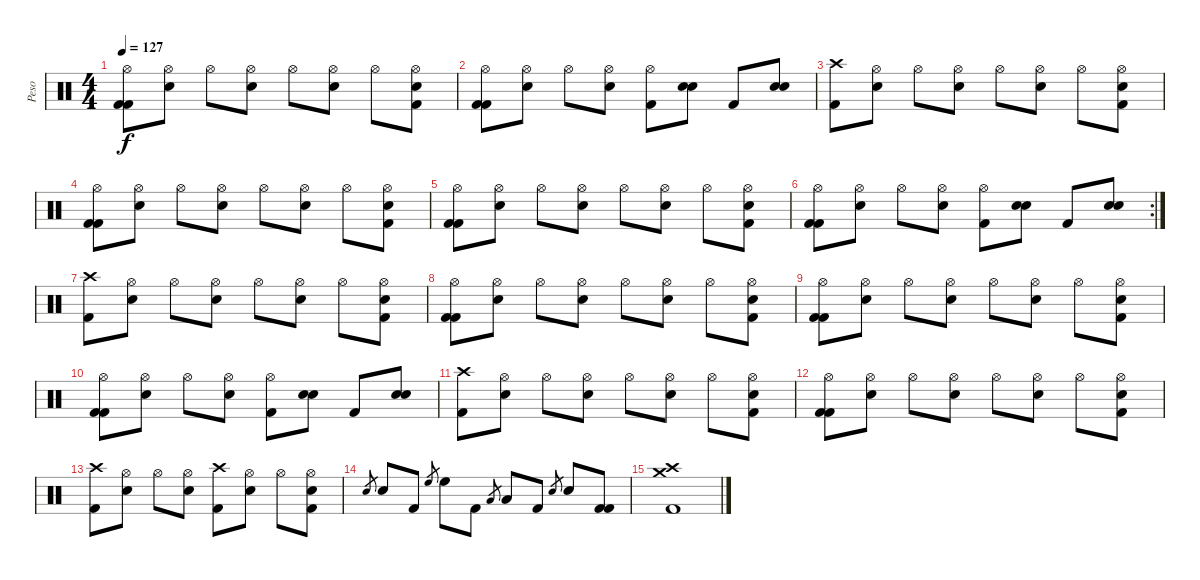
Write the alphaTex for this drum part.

\track ("Peso" "Peso") {instrument percussion}
\staff {score}
\articulation defaults
\ts (4 4)
\tempo 127
\clef neutral
\ks c
("Hi-Hat (open)" "Kick (hit) 2" "Kick (hit) 2").8{dy f} ("Hi-Hat (open)" "Snare (hit) 2").8 "Hi-Hat (open)".8 ("Hi-Hat (open)" "Snare (hit) 2").8 "Hi-Hat (open)".8 ("Hi-Hat (open)" "Snare (hit) 2").8 "Hi-Hat (open)".8 ("Hi-Hat (open)" "Snare (hit) 2" "Kick (hit) 2").8 |
("Hi-Hat (open)" "Kick (hit) 2" "Kick (hit) 2").8 ("Hi-Hat (open)" "Snare (hit) 2").8 "Hi-Hat (open)".8 ("Hi-Hat (open)" "Snare (hit) 2").8 ("Hi-Hat (open)" "Kick (hit) 2").8 ("Snare (hit) 2" "Snare (hit) 2").8 "Kick (hit) 2".8 ("Snare (hit) 2" "Snare (hit) 2").8 |
("Crash high (hit)" "Kick (hit) 2").8 ("Hi-Hat (open)" "Snare (hit) 2").8 "Hi-Hat (open)".8 ("Hi-Hat (open)" "Snare (hit) 2").8 "Hi-Hat (open)".8 ("Hi-Hat (open)" "Snare (hit) 2").8 "Hi-Hat (open)".8 ("Hi-Hat (open)" "Snare (hit) 2" "Kick (hit) 2").8 |
("Hi-Hat (open)" "Kick (hit) 2" "Kick (hit) 2").8 ("Hi-Hat (open)" "Snare (hit) 2").8 "Hi-Hat (open)".8 ("Hi-Hat (open)" "Snare (hit) 2").8 "Hi-Hat (open)".8 ("Hi-Hat (open)" "Snare (hit) 2").8 "Hi-Hat (open)".8 ("Hi-Hat (open)" "Snare (hit) 2" "Kick (hit) 2").8 |
("Hi-Hat (open)" "Kick (hit) 2" "Kick (hit) 2").8 ("Hi-Hat (open)" "Snare (hit) 2").8 "Hi-Hat (open)".8 ("Hi-Hat (open)" "Snare (hit) 2").8 "Hi-Hat (open)".8 ("Hi-Hat (open)" "Snare (hit) 2").8 "Hi-Hat (open)".8 ("Hi-Hat (open)" "Snare (hit) 2" "Kick (hit) 2").8 |
\rc 2
("Hi-Hat (open)" "Kick (hit) 2" "Kick (hit) 2").8 ("Hi-Hat (open)" "Snare (hit) 2").8 "Hi-Hat (open)".8 ("Hi-Hat (open)" "Snare (hit) 2").8 ("Hi-Hat (open)" "Kick (hit) 2").8 ("Snare (hit) 2" "Snare (hit) 2").8 "Kick (hit) 2".8 ("Snare (hit) 2" "Snare (hit) 2").8 |
("Crash high (hit)" "Kick (hit) 2").8 ("Hi-Hat (open)" "Snare (hit) 2").8 "Hi-Hat (open)".8 ("Hi-Hat (open)" "Snare (hit) 2").8 "Hi-Hat (open)".8 ("Hi-Hat (open)" "Snare (hit) 2").8 "Hi-Hat (open)".8 ("Hi-Hat (open)" "Snare (hit) 2" "Kick (hit) 2").8 |
("Hi-Hat (open)" "Kick (hit) 2" "Kick (hit) 2").8 ("Hi-Hat (open)" "Snare (hit) 2").8 "Hi-Hat (open)".8 ("Hi-Hat (open)" "Snare (hit) 2").8 "Hi-Hat (open)".8 ("Hi-Hat (open)" "Snare (hit) 2").8 "Hi-Hat (open)".8 ("Hi-Hat (open)" "Snare (hit) 2" "Kick (hit) 2").8 |
("Hi-Hat (open)" "Kick (hit) 2" "Kick (hit) 2").8 ("Hi-Hat (open)" "Snare (hit) 2").8 "Hi-Hat (open)".8 ("Hi-Hat (open)" "Snare (hit) 2").8 "Hi-Hat (open)".8 ("Hi-Hat (open)" "Snare (hit) 2").8 "Hi-Hat (open)".8 ("Hi-Hat (open)" "Snare (hit) 2" "Kick (hit) 2").8 |
("Hi-Hat (open)" "Kick (hit) 2" "Kick (hit) 2").8 ("Hi-Hat (open)" "Snare (hit) 2").8 "Hi-Hat (open)".8 ("Hi-Hat (open)" "Snare (hit) 2").8 ("Hi-Hat (open)" "Kick (hit) 2").8 ("Snare (hit) 2" "Snare (hit) 2").8 "Kick (hit) 2".8 ("Snare (hit) 2" "Snare (hit) 2").8 |
("Crash high (hit)" "Kick (hit) 2").8 ("Hi-Hat (open)" "Snare (hit) 2").8 "Hi-Hat (open)".8 ("Hi-Hat (open)" "Snare (hit) 2").8 "Hi-Hat (open)".8 ("Hi-Hat (open)" "Snare (hit) 2").8 "Hi-Hat (open)".8 ("Hi-Hat (open)" "Snare (hit) 2" "Kick (hit) 2").8 |
("Hi-Hat (open)" "Kick (hit) 2" "Kick (hit) 2").8 ("Hi-Hat (open)" "Snare (hit) 2").8 "Hi-Hat (open)".8 ("Hi-Hat (open)" "Snare (hit) 2").8 "Hi-Hat (open)".8 ("Hi-Hat (open)" "Snare (hit) 2").8 "Hi-Hat (open)".8 ("Hi-Hat (open)" "Snare (hit) 2" "Kick (hit) 2").8 |
("Crash high (hit)" "Kick (hit) 2").8 ("Hi-Hat (open)" "Snare (hit) 2").8 "Hi-Hat (open)".8 ("Hi-Hat (open)" "Snare (hit) 2").8 ("Crash high (hit)" "Kick (hit) 2").8 ("Hi-Hat (open)" "Snare (hit) 2").8 "Hi-Hat (open)".8 ("Hi-Hat (open)" "Snare (hit) 2" "Kick (hit) 2").8 |
"Snare (hit) 2".8{gr} "Snare (hit) 2".8 "Kick (hit) 2".8 "High Floor Tom (hit)".8{gr} "High Floor Tom (hit)".8 "Kick (hit) 2".8 "Low Floor Tom (hit)".8{gr} "Low Floor Tom (hit)".8{volume 16} "Kick (hit) 2".8 "Snare (hit) 2".8{gr} "Snare (hit) 2".8{volume 14} ("Kick (hit) 2" "Kick (hit) 2").8 |
("Crash high (hit)" "Crash medium (hit)" "Kick (hit) 2").1
